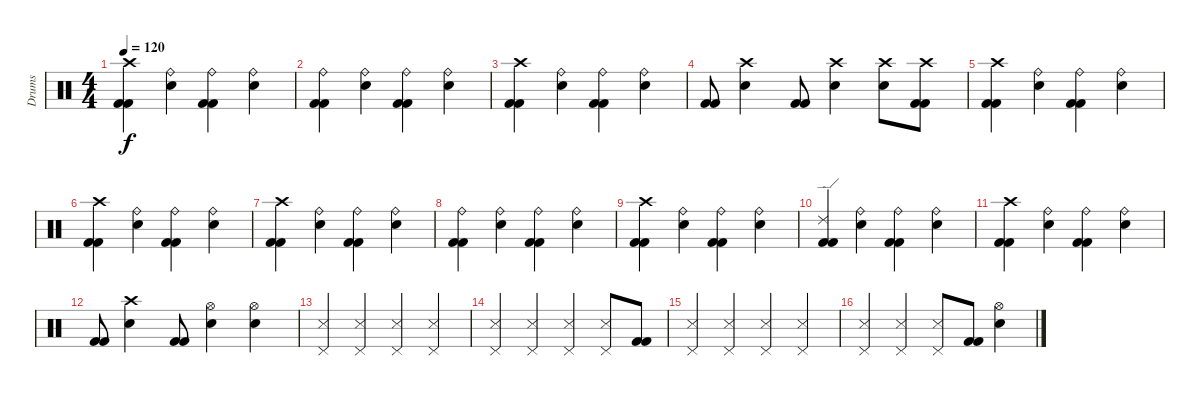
\track ("Drums" "Drums") {instrument percussion}
\staff {score}
\articulation defaults
\ts (4 4)
\tempo 120
\clef neutral
\ks c
("Crash high (hit)" "Kick (hit) 2" "Kick (hit) 2").4{dy f} ("Ride (bell)" "Snare (hit) 2").4 ("Ride (bell)" "Kick (hit) 2" "Kick (hit) 2").4 ("Ride (bell)" "Snare (hit) 2").4 |
("Ride (bell)" "Kick (hit) 2" "Kick (hit) 2").4 ("Ride (bell)" "Snare (hit) 2").4 ("Ride (bell)" "Kick (hit) 2" "Kick (hit) 2").4 ("Ride (bell)" "Snare (hit) 2").4 |
("Crash high (hit)" "Kick (hit) 2" "Kick (hit) 2").4 ("Ride (bell)" "Snare (hit) 2").4 ("Ride (bell)" "Kick (hit) 2" "Kick (hit) 2").4 ("Ride (bell)" "Snare (hit) 2").4 |
("Kick (hit) 2" "Kick (hit) 2").8 ("Crash high (hit)" "Snare (hit) 2").4 ("Kick (hit) 2" "Kick (hit) 2").8 ("Crash high (hit)" "Snare (hit) 2").4 ("Crash high (hit)" "Snare (hit) 2").8 ("Crash high (hit)" "Kick (hit) 2" "Kick (hit) 2").8 |
("Crash high (hit)" "Kick (hit) 2" "Kick (hit) 2").4 ("Ride (bell)" "Snare (hit) 2").4 ("Ride (bell)" "Kick (hit) 2" "Kick (hit) 2").4 ("Ride (bell)" "Snare (hit) 2").4 |
("Crash high (hit)" "Kick (hit) 2" "Kick (hit) 2").4 ("Ride (bell)" "Snare (hit) 2").4 ("Ride (bell)" "Kick (hit) 2" "Kick (hit) 2").4 ("Ride (bell)" "Snare (hit) 2").4 |
("Crash high (hit)" "Kick (hit) 2" "Kick (hit) 2").4 ("Ride (bell)" "Snare (hit) 2").4 ("Ride (bell)" "Kick (hit) 2" "Kick (hit) 2").4 ("Ride (bell)" "Snare (hit) 2").4 |
("Ride (bell)" "Kick (hit) 2" "Kick (hit) 2").4 ("Ride (bell)" "Snare (hit) 2").4 ("Ride (bell)" "Kick (hit) 2" "Kick (hit) 2").4 ("Ride (bell)" "Snare (hit) 2").4 |
("Crash high (hit)" "Kick (hit) 2" "Kick (hit) 2").4 ("Ride (bell)" "Snare (hit) 2").4 ("Ride (bell)" "Kick (hit) 2" "Kick (hit) 2").4 ("Ride (bell)" "Snare (hit) 2").4 |
("Ride (edge) 2" "Kick (hit) 2" "Kick (hit) 2").4 ("Ride (bell)" "Snare (hit) 2").4 ("Ride (bell)" "Kick (hit) 2" "Kick (hit) 2").4 ("Ride (bell)" "Snare (hit) 2").4 |
("Crash high (hit)" "Kick (hit) 2" "Kick (hit) 2").4 ("Ride (bell)" "Snare (hit) 2").4 ("Ride (bell)" "Kick (hit) 2" "Kick (hit) 2").4 ("Ride (bell)" "Snare (hit) 2").4 |
("Kick (hit) 2" "Kick (hit) 2").8 ("Crash high (hit)" "Snare (hit) 2").4 ("Kick (hit) 2" "Kick (hit) 2").8 ("Hi-Hat (open)" "Snare (hit) 2").4 ("Hi-Hat (open)" "Snare (hit) 2").4 |
("Pedal Hi-Hat (hit)" "Snare (side stick) 3").4 ("Pedal Hi-Hat (hit)" "Snare (side stick) 3").4 ("Pedal Hi-Hat (hit)" "Snare (side stick) 3").4 ("Pedal Hi-Hat (hit)" "Snare (side stick) 3").4 |
("Pedal Hi-Hat (hit)" "Snare (side stick) 3").4 ("Pedal Hi-Hat (hit)" "Snare (side stick) 3").4 ("Pedal Hi-Hat (hit)" "Snare (side stick) 3").4 ("Pedal Hi-Hat (hit)" "Snare (side stick) 3").8 ("Kick (hit) 2" "Kick (hit) 2").8 |
("Pedal Hi-Hat (hit)" "Snare (side stick) 3").4 ("Pedal Hi-Hat (hit)" "Snare (side stick) 3").4 ("Pedal Hi-Hat (hit)" "Snare (side stick) 3").4 ("Pedal Hi-Hat (hit)" "Snare (side stick) 3").4 |
("Pedal Hi-Hat (hit)" "Snare (side stick) 3").4 ("Pedal Hi-Hat (hit)" "Snare (side stick) 3").4 ("Pedal Hi-Hat (hit)" "Snare (side stick) 3").8 ("Kick (hit) 2" "Kick (hit) 2").8 ("Hi-Hat (open)" "Snare (hit) 2").4
